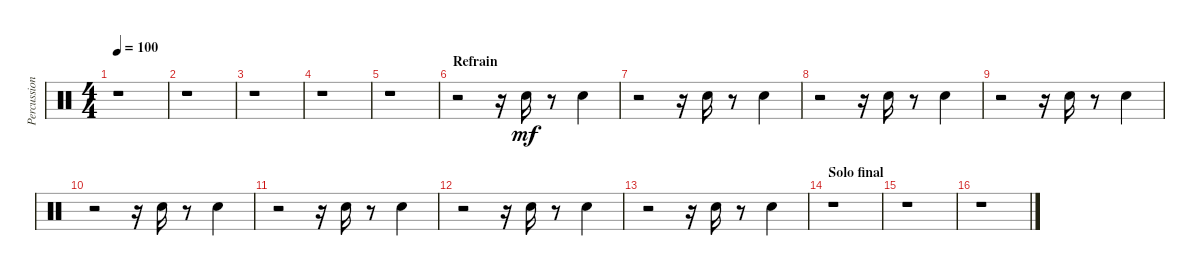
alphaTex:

\track ("Percussions" "Percussion") {instrument percussion}
\staff {score}
\articulation defaults
\ts (4 4)
\tempo 100
\clef neutral
\ks c
r.1{dy mf} |
r.1 |
r.1 |
r.1 |
r.1 |
\section ("" "Refrain")
r.2 r.16 "Hand Clap (hit)".16 r.8 "Hand Clap (hit)".4 |
r.2 r.16 "Hand Clap (hit)".16 r.8 "Hand Clap (hit)".4 |
r.2 r.16 "Hand Clap (hit)".16 r.8 "Hand Clap (hit)".4 |
r.2 r.16 "Hand Clap (hit)".16 r.8 "Hand Clap (hit)".4 |
r.2 r.16 "Hand Clap (hit)".16 r.8 "Hand Clap (hit)".4 |
r.2 r.16 "Hand Clap (hit)".16 r.8 "Hand Clap (hit)".4 |
r.2 r.16 "Hand Clap (hit)".16 r.8 "Hand Clap (hit)".4 |
r.2 r.16 "Hand Clap (hit)".16 r.8 "Hand Clap (hit)".4 |
\section ("" "Solo final")
r.1 |
r.1 |
r.1
